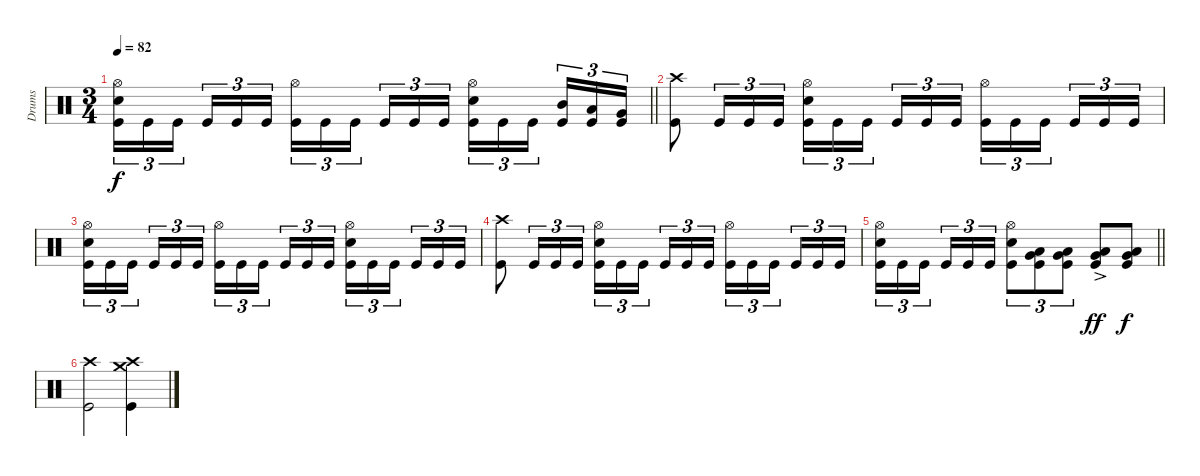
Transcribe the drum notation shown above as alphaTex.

\track ("Drums" "Drums") {instrument percussion}
\staff
\articulation defaults
\ts (3 4)
\tempo 82
\clef neutral
\barLineRight lightlight
\ks c
("Hi-Hat (open)" "Electric Snare (hit)" "Kick (hit)").16{tu (3 2) dy f} "Kick (hit)".16{tu (3 2)} "Kick (hit)".16{tu (3 2) beam splitsecondary} "Kick (hit)".16{tu (3 2)} "Kick (hit)".16{tu (3 2)} "Kick (hit)".16{tu (3 2)} ("Hi-Hat (open)" "Kick (hit)").16{tu (3 2)} "Kick (hit)".16{tu (3 2)} "Kick (hit)".16{tu (3 2) beam splitsecondary} "Kick (hit)".16{tu (3 2)} "Kick (hit)".16{tu (3 2)} "Kick (hit)".16{tu (3 2)} ("Hi-Hat (open)" "Electric Snare (hit)" "Kick (hit)").16{tu (3 2)} "Kick (hit)".16{tu (3 2)} "Kick (hit)".16{tu (3 2) beam splitsecondary} ("Mid Tom (hit)" "Kick (hit)").16{tu (3 2)} ("Low Tom (hit)" "Kick (hit)").16{tu (3 2)} ("Very Low Tom (hit)" "Kick (hit)").16{tu (3 2)} |
("Crash high (hit)" "Kick (hit)").8 "Kick (hit)".16{tu (3 2)} "Kick (hit)".16{tu (3 2)} "Kick (hit)".16{tu (3 2)} ("Hi-Hat (open)" "Electric Snare (hit)" "Kick (hit)").16{tu (3 2)} "Kick (hit)".16{tu (3 2)} "Kick (hit)".16{tu (3 2) beam splitsecondary} "Kick (hit)".16{tu (3 2)} "Kick (hit)".16{tu (3 2)} "Kick (hit)".16{tu (3 2)} ("Hi-Hat (open)" "Kick (hit)").16{tu (3 2)} "Kick (hit)".16{tu (3 2)} "Kick (hit)".16{tu (3 2) beam splitsecondary} "Kick (hit)".16{tu (3 2)} "Kick (hit)".16{tu (3 2)} "Kick (hit)".16{tu (3 2)} |
("Hi-Hat (open)" "Electric Snare (hit)" "Kick (hit)").16{tu (3 2)} "Kick (hit)".16{tu (3 2)} "Kick (hit)".16{tu (3 2) beam splitsecondary} "Kick (hit)".16{tu (3 2)} "Kick (hit)".16{tu (3 2)} "Kick (hit)".16{tu (3 2)} ("Hi-Hat (open)" "Kick (hit)").16{tu (3 2)} "Kick (hit)".16{tu (3 2)} "Kick (hit)".16{tu (3 2) beam splitsecondary} "Kick (hit)".16{tu (3 2)} "Kick (hit)".16{tu (3 2)} "Kick (hit)".16{tu (3 2)} ("Hi-Hat (open)" "Electric Snare (hit)" "Kick (hit)").16{tu (3 2)} "Kick (hit)".16{tu (3 2)} "Kick (hit)".16{tu (3 2) beam splitsecondary} "Kick (hit)".16{tu (3 2)} "Kick (hit)".16{tu (3 2)} "Kick (hit)".16{tu (3 2)} |
("Crash high (hit)" "Kick (hit)").8 "Kick (hit)".16{tu (3 2)} "Kick (hit)".16{tu (3 2)} "Kick (hit)".16{tu (3 2)} ("Hi-Hat (open)" "Electric Snare (hit)" "Kick (hit)").16{tu (3 2)} "Kick (hit)".16{tu (3 2)} "Kick (hit)".16{tu (3 2) beam splitsecondary} "Kick (hit)".16{tu (3 2)} "Kick (hit)".16{tu (3 2)} "Kick (hit)".16{tu (3 2)} ("Hi-Hat (open)" "Kick (hit)").16{tu (3 2)} "Kick (hit)".16{tu (3 2)} "Kick (hit)".16{tu (3 2) beam splitsecondary} "Kick (hit)".16{tu (3 2)} "Kick (hit)".16{tu (3 2)} "Kick (hit)".16{tu (3 2)} |
\barLineRight lightlight
("Hi-Hat (open)" "Electric Snare (hit)" "Kick (hit)").16{tu (3 2)} "Kick (hit)".16{tu (3 2)} "Kick (hit)".16{tu (3 2) beam splitsecondary} "Kick (hit)".16{tu (3 2)} "Kick (hit)".16{tu (3 2)} "Kick (hit)".16{tu (3 2)} ("Hi-Hat (open)" "Electric Snare (hit)" "Kick (hit)").8{tu (3 2)} ("Very Low Tom (hit)" "Low Floor Tom (hit)" "Kick (hit)").8{tu (3 2)} ("Very Low Tom (hit)" "Low Floor Tom (hit)" "Kick (hit)").8{tu (3 2)} ("Very Low Tom (hit)"{ac} "Low Floor Tom (hit)"{ac} "Kick (hit)").8{dy ff} ("Very Low Tom (hit)" "Low Floor Tom (hit)" "Kick (hit)").8{dy f} |
("Crash high (hit)" "Kick (hit)").2 ("Crash high (hit)" "Crash medium (hit)" "Kick (hit)").4
